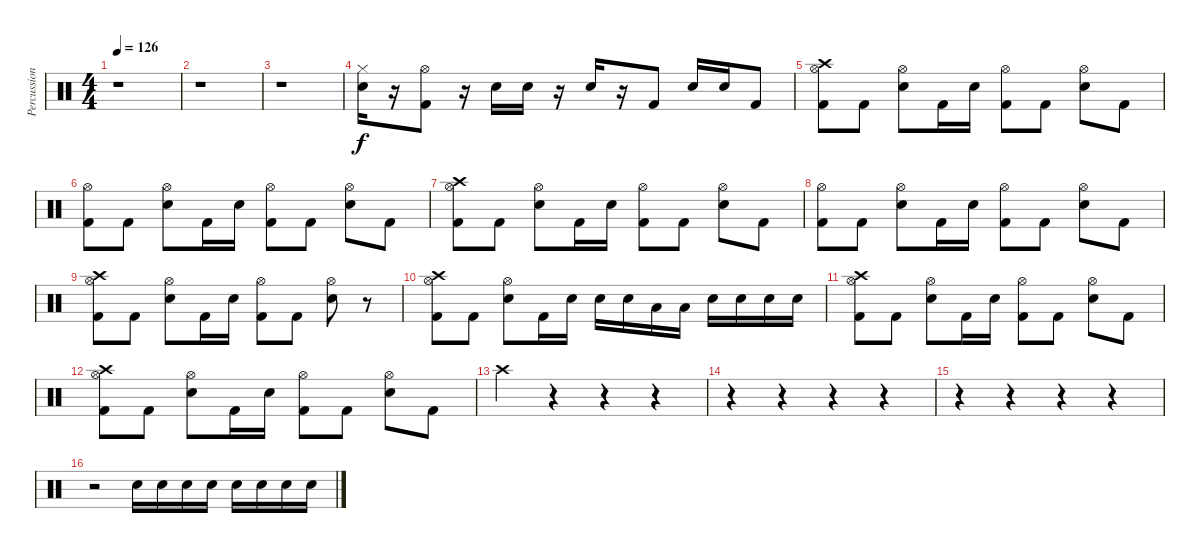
\track ("Percussion" "Percussion") {instrument percussion}
\staff {score}
\articulation defaults
\ts (4 4)
\tempo 126
\clef neutral
\ks c
r.1{dy f} |
r.1 |
r.1 |
("Hi-Hat (closed)" "Electric Snare (hit)").16 r.16 ("Hi-Hat (open)" "Kick (hit) 2").8 r.16 "Electric Snare (hit)".16 "Electric Snare (hit)".16 r.16 "Electric Snare (hit)".16 r.16 "Kick (hit) 2".8 "Electric Snare (hit)".16 "Electric Snare (hit)".16 "Kick (hit) 2".8 |
("Crash high (hit)" "Hi-Hat (open)" "Kick (hit) 2").8 "Kick (hit) 2".8 ("Hi-Hat (open)" "Electric Snare (hit)").8 "Kick (hit) 2".16 "Electric Snare (hit)".16 ("Hi-Hat (open)" "Kick (hit) 2").8 "Kick (hit) 2".8 ("Hi-Hat (open)" "Electric Snare (hit)").8 "Kick (hit) 2".8 |
("Hi-Hat (open)" "Kick (hit) 2").8 "Kick (hit) 2".8 ("Hi-Hat (open)" "Electric Snare (hit)").8 "Kick (hit) 2".16 "Electric Snare (hit)".16 ("Hi-Hat (open)" "Kick (hit) 2").8 "Kick (hit) 2".8 ("Hi-Hat (open)" "Electric Snare (hit)").8 "Kick (hit) 2".8 |
("Crash high (hit)" "Hi-Hat (open)" "Kick (hit) 2").8 "Kick (hit) 2".8 ("Hi-Hat (open)" "Electric Snare (hit)").8 "Kick (hit) 2".16 "Electric Snare (hit)".16 ("Hi-Hat (open)" "Kick (hit) 2").8 "Kick (hit) 2".8 ("Hi-Hat (open)" "Electric Snare (hit)").8 "Kick (hit) 2".8 |
("Hi-Hat (open)" "Kick (hit) 2").8 "Kick (hit) 2".8 ("Hi-Hat (open)" "Electric Snare (hit)").8 "Kick (hit) 2".16 "Electric Snare (hit)".16 ("Hi-Hat (open)" "Kick (hit) 2").8 "Kick (hit) 2".8 ("Hi-Hat (open)" "Electric Snare (hit)").8 "Kick (hit) 2".8 |
("Crash high (hit)" "Hi-Hat (open)" "Kick (hit) 2").8 "Kick (hit) 2".8 ("Hi-Hat (open)" "Electric Snare (hit)").8 "Kick (hit) 2".16 "Electric Snare (hit)".16 ("Hi-Hat (open)" "Kick (hit) 2").8 "Kick (hit) 2".8 ("Hi-Hat (open)" "Electric Snare (hit)").8 r.8 |
("Crash high (hit)" "Hi-Hat (open)" "Kick (hit) 2").8 "Kick (hit) 2".8 ("Hi-Hat (open)" "Electric Snare (hit)").8 "Kick (hit) 2".16 "Electric Snare (hit)".16 "Electric Snare (hit)".16 "Electric Snare (hit)".16 "Low Tom (hit)".16 "Low Tom (hit)".16 "Electric Snare (hit)".16 "Electric Snare (hit)".16 "Electric Snare (hit)".16 "Electric Snare (hit)".16 |
("Crash high (hit)" "Hi-Hat (open)" "Kick (hit) 2").8 "Kick (hit) 2".8 ("Hi-Hat (open)" "Electric Snare (hit)").8 "Kick (hit) 2".16 "Electric Snare (hit)".16 ("Hi-Hat (open)" "Kick (hit) 2").8 "Kick (hit) 2".8 ("Hi-Hat (open)" "Electric Snare (hit)").8 "Kick (hit) 2".8 |
("Crash high (hit)" "Hi-Hat (open)" "Kick (hit) 2").8 "Kick (hit) 2".8 ("Hi-Hat (open)" "Electric Snare (hit)").8 "Kick (hit) 2".16 "Electric Snare (hit)".16 ("Hi-Hat (open)" "Kick (hit) 2").8 "Kick (hit) 2".8 ("Hi-Hat (open)" "Electric Snare (hit)").8 "Kick (hit) 2".8 |
"Crash high (hit)".4 r.4 r.4 r.4 |
r.4 r.4 r.4 r.4 |
r.4 r.4 r.4 r.4 |
r.2 "Electric Snare (hit)".16 "Electric Snare (hit)".16 "Electric Snare (hit)".16 "Electric Snare (hit)".16 "Electric Snare (hit)".16 "Electric Snare (hit)".16 "Electric Snare (hit)".16 "Electric Snare (hit)".16
